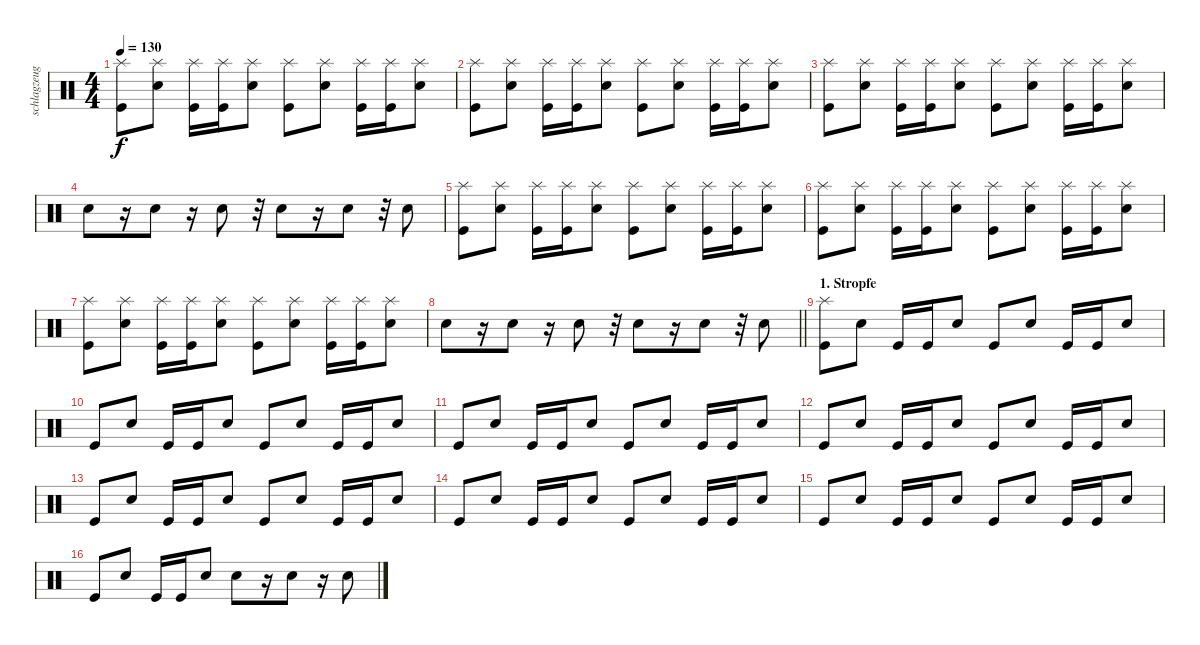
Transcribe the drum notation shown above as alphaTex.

\track ("schlagzeug" "schlagzeug") {instrument percussion}
\staff {score}
\articulation defaults
\ts (4 4)
\tempo 130
\clef neutral
\ks c
("Kick (hit)" "Splash (hit)").8{dy f} ("Snare (hit) 2" "Splash (hit)").8 ("Kick (hit)" "Splash (hit)").16 ("Kick (hit)" "Splash (hit)").16 ("Snare (hit) 2" "Splash (hit)").8 ("Kick (hit)" "Splash (hit)").8 ("Snare (hit) 2" "Splash (hit)").8 ("Kick (hit)" "Splash (hit)").16 ("Kick (hit)" "Splash (hit)").16 ("Snare (hit) 2" "Splash (hit)").8 |
("Kick (hit)" "Splash (hit)").8 ("Snare (hit) 2" "Splash (hit)").8 ("Kick (hit)" "Splash (hit)").16 ("Kick (hit)" "Splash (hit)").16 ("Snare (hit) 2" "Splash (hit)").8 ("Kick (hit)" "Splash (hit)").8 ("Snare (hit) 2" "Splash (hit)").8 ("Kick (hit)" "Splash (hit)").16 ("Kick (hit)" "Splash (hit)").16 ("Snare (hit) 2" "Splash (hit)").8 |
("Kick (hit)" "Splash (hit)").8 ("Snare (hit) 2" "Splash (hit)").8 ("Kick (hit)" "Splash (hit)").16 ("Kick (hit)" "Splash (hit)").16 ("Snare (hit) 2" "Splash (hit)").8 ("Kick (hit)" "Splash (hit)").8 ("Snare (hit) 2" "Splash (hit)").8 ("Kick (hit)" "Splash (hit)").16 ("Kick (hit)" "Splash (hit)").16 ("Snare (hit) 2" "Splash (hit)").8 |
"Snare (hit) 2".8 r.16 "Snare (hit) 2".8 r.16 "Snare (hit) 2".8 r.32 "Snare (hit) 2".8 r.16 "Snare (hit) 2".8 r.32 "Snare (hit) 2".8 |
("Kick (hit)" "Splash (hit)").8 ("Snare (hit) 2" "Splash (hit)").8 ("Kick (hit)" "Splash (hit)").16 ("Kick (hit)" "Splash (hit)").16 ("Snare (hit) 2" "Splash (hit)").8 ("Kick (hit)" "Splash (hit)").8 ("Snare (hit) 2" "Splash (hit)").8 ("Kick (hit)" "Splash (hit)").16 ("Kick (hit)" "Splash (hit)").16 ("Snare (hit) 2" "Splash (hit)").8 |
("Kick (hit)" "Splash (hit)").8 ("Snare (hit) 2" "Splash (hit)").8 ("Kick (hit)" "Splash (hit)").16 ("Kick (hit)" "Splash (hit)").16 ("Snare (hit) 2" "Splash (hit)").8 ("Kick (hit)" "Splash (hit)").8 ("Snare (hit) 2" "Splash (hit)").8 ("Kick (hit)" "Splash (hit)").16 ("Kick (hit)" "Splash (hit)").16 ("Snare (hit) 2" "Splash (hit)").8 |
("Kick (hit)" "Splash (hit)").8 ("Snare (hit) 2" "Splash (hit)").8 ("Kick (hit)" "Splash (hit)").16 ("Kick (hit)" "Splash (hit)").16 ("Snare (hit) 2" "Splash (hit)").8 ("Kick (hit)" "Splash (hit)").8 ("Snare (hit) 2" "Splash (hit)").8 ("Kick (hit)" "Splash (hit)").16 ("Kick (hit)" "Splash (hit)").16 ("Snare (hit) 2" "Splash (hit)").8 |
\barLineRight lightlight "Snare (hit) 2".8
r.16 "Snare (hit) 2".8 r.16 "Snare (hit) 2".8 r.32 "Snare (hit) 2".8 r.16 "Snare (hit) 2".8 r.32 "Snare (hit) 2".8 |
\section ("" "1. Stropfe")
("Kick (hit)" "Splash (hit)").8 "Snare (hit) 2".8 "Kick (hit)".16 "Kick (hit)".16 "Snare (hit) 2".8 "Kick (hit)".8 "Snare (hit) 2".8 "Kick (hit)".16 "Kick (hit)".16 "Snare (hit) 2".8 |
"Kick (hit)".8 "Snare (hit) 2".8 "Kick (hit)".16 "Kick (hit)".16 "Snare (hit) 2".8 "Kick (hit)".8 "Snare (hit) 2".8 "Kick (hit)".16 "Kick (hit)".16 "Snare (hit) 2".8 |
"Kick (hit)".8 "Snare (hit) 2".8 "Kick (hit)".16 "Kick (hit)".16 "Snare (hit) 2".8 "Kick (hit)".8 "Snare (hit) 2".8 "Kick (hit)".16 "Kick (hit)".16 "Snare (hit) 2".8 |
"Kick (hit)".8 "Snare (hit) 2".8 "Kick (hit)".16 "Kick (hit)".16 "Snare (hit) 2".8 "Kick (hit)".8 "Snare (hit) 2".8 "Kick (hit)".16 "Kick (hit)".16 "Snare (hit) 2".8 |
"Kick (hit)".8 "Snare (hit) 2".8 "Kick (hit)".16 "Kick (hit)".16 "Snare (hit) 2".8 "Kick (hit)".8 "Snare (hit) 2".8 "Kick (hit)".16 "Kick (hit)".16 "Snare (hit) 2".8 |
"Kick (hit)".8 "Snare (hit) 2".8 "Kick (hit)".16 "Kick (hit)".16 "Snare (hit) 2".8 "Kick (hit)".8 "Snare (hit) 2".8 "Kick (hit)".16 "Kick (hit)".16 "Snare (hit) 2".8 |
"Kick (hit)".8 "Snare (hit) 2".8 "Kick (hit)".16 "Kick (hit)".16 "Snare (hit) 2".8 "Kick (hit)".8 "Snare (hit) 2".8 "Kick (hit)".16 "Kick (hit)".16 "Snare (hit) 2".8 |
"Kick (hit)".8 "Snare (hit) 2".8 "Kick (hit)".16 "Kick (hit)".16 "Snare (hit) 2".8 "Snare (hit) 2".8 r.16 "Snare (hit) 2".8 r.16 "Snare (hit) 2".8
